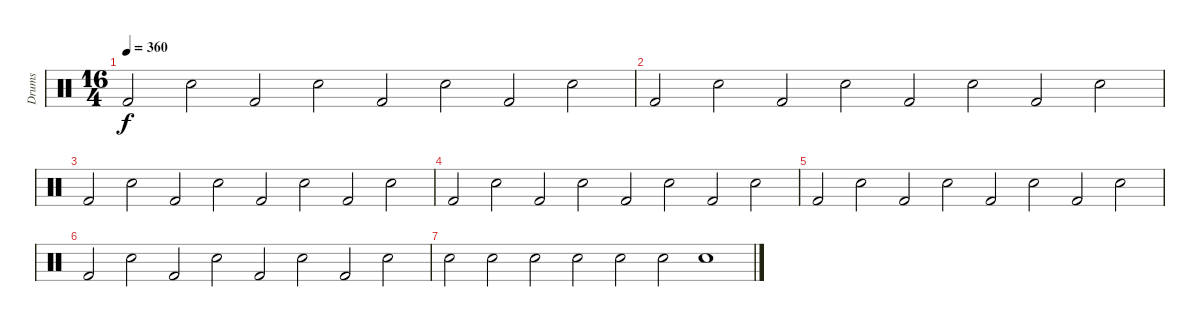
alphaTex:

\track ("Drums" "Drums") {instrument percussion}
\staff {score}
\articulation defaults
\ts (16 4)
\tempo 360
\clef neutral
\ks c "Kick (hit) 2".2{dy f} "Snare (hit) 2".2 "Kick (hit) 2".2 "Snare (hit) 2".2 "Kick (hit) 2".2 "Snare (hit) 2".2 "Kick (hit) 2".2 "Snare (hit) 2".2
|
"Kick (hit) 2".2 "Snare (hit) 2".2 "Kick (hit) 2".2 "Snare (hit) 2".2 "Kick (hit) 2".2 "Snare (hit) 2".2 "Kick (hit) 2".2 "Snare (hit) 2".2 |
"Kick (hit) 2".2 "Snare (hit) 2".2 "Kick (hit) 2".2 "Snare (hit) 2".2 "Kick (hit) 2".2 "Snare (hit) 2".2 "Kick (hit) 2".2 "Snare (hit) 2".2 |
"Kick (hit) 2".2 "Snare (hit) 2".2 "Kick (hit) 2".2 "Snare (hit) 2".2 "Kick (hit) 2".2 "Snare (hit) 2".2 "Kick (hit) 2".2 "Snare (hit) 2".2 |
"Kick (hit) 2".2 "Snare (hit) 2".2 "Kick (hit) 2".2 "Snare (hit) 2".2 "Kick (hit) 2".2 "Snare (hit) 2".2 "Kick (hit) 2".2 "Snare (hit) 2".2 |
"Kick (hit) 2".2 "Snare (hit) 2".2 "Kick (hit) 2".2 "Snare (hit) 2".2 "Kick (hit) 2".2 "Snare (hit) 2".2 "Kick (hit) 2".2 "Snare (hit) 2".2 |
"Snare (hit) 2".2 "Snare (hit) 2".2 "Snare (hit) 2".2 "Snare (hit) 2".2 "Snare (hit) 2".2 "Snare (hit) 2".2 "Snare (hit) 2".1
